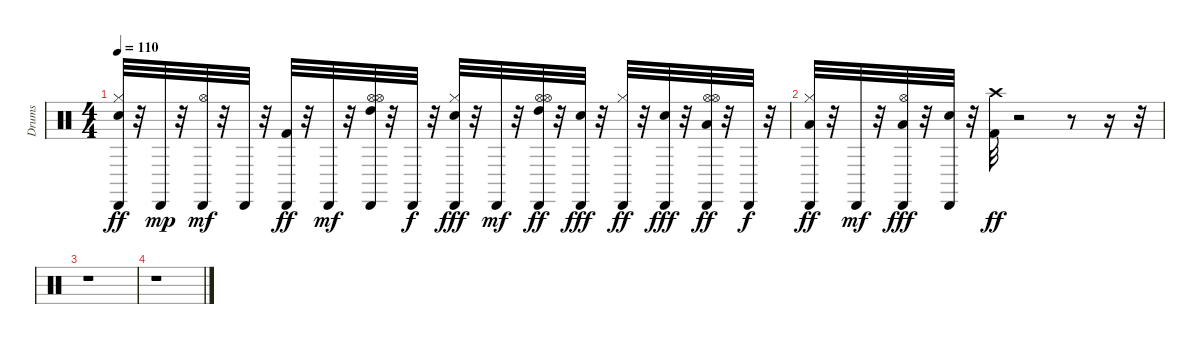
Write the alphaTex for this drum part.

\track ("Drums" "Drums") {instrument percussion}
\staff {score}
\articulation defaults
\ts (4 4)
\tempo 110
\clef neutral
\ks c
("Cabasa (hit)" "Hi-Hat (closed)" "Snare (hit) 2").32{dy ff} r.32 "Cabasa (hit)".32{dy mp} r.32 ("Hi-Hat (open)" "Cabasa (hit)").32{dy mf} r.32 "Cabasa (hit)".32 r.32 ("Cabasa (hit)" "Kick (hit) 2").32{dy ff} r.32 "Cabasa (hit)".32{dy mf} r.32 ("High Tom (hit)" "Hi-Hat (open)" "Hi-Hat (open)" "Cabasa (hit)").32 r.32 "Cabasa (hit)".32{dy f} r.32 ("Cabasa (hit)" "Hi-Hat (closed)" "Snare (hit) 2").32{dy fff} r.32 "Cabasa (hit)".32{dy mf} r.32 ("High Tom (hit)" "Hi-Hat (open)" "Hi-Hat (open)" "Cabasa (hit)").32{dy ff} r.32 ("Cabasa (hit)" "Snare (hit) 2").32{dy fff} r.32 ("Cabasa (hit)" "Hi-Hat (closed)").32{dy ff} r.32 ("Cabasa (hit)" "Snare (hit) 2").32{dy fff} r.32 ("Low Tom (hit)" "Hi-Hat (open)" "Hi-Hat (open)" "Cabasa (hit)").32{dy ff} r.32 "Cabasa (hit)".32{dy f} r.32 |
("Low Tom (hit)" "Cabasa (hit)" "Hi-Hat (closed)").32{dy ff} r.32 "Cabasa (hit)".32{dy mf} r.32 ("Low Floor Tom (hit)" "Hi-Hat (open)" "Cabasa (hit)").32{dy fff} r.32 ("Cabasa (hit)" "Snare (hit) 2").32 r.32 ("Crash high (hit)" "Kick (hit) 2").32{dy ff} r.2 r.8 r.16 r.32 |
r.1 |
r.1
